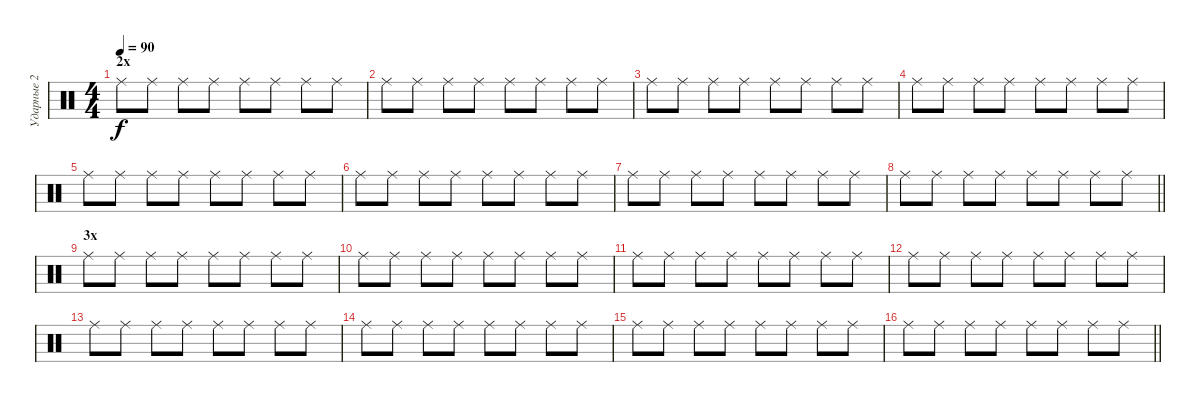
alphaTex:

\track ("Ударные 2" "Ударные 2") {instrument percussion}
\staff {score}
\articulation defaults
\ts (4 4)
\section ("" "2х")
\tempo 90
\clef neutral
\ks c "Ride (middle)".8{dy f} "Ride (middle)".8 "Ride (middle)".8 "Ride (middle)".8 "Ride (middle)".8 "Ride (middle)".8 "Ride (middle)".8 "Ride (middle)".8
|
"Ride (middle)".8 "Ride (middle)".8 "Ride (middle)".8 "Ride (middle)".8 "Ride (middle)".8 "Ride (middle)".8 "Ride (middle)".8 "Ride (middle)".8 |
"Ride (middle)".8 "Ride (middle)".8 "Ride (middle)".8 "Ride (middle)".8 "Ride (middle)".8 "Ride (middle)".8 "Ride (middle)".8 "Ride (middle)".8 |
"Ride (middle)".8 "Ride (middle)".8 "Ride (middle)".8 "Ride (middle)".8 "Ride (middle)".8 "Ride (middle)".8 "Ride (middle)".8 "Ride (middle)".8 |
"Ride (middle)".8 "Ride (middle)".8 "Ride (middle)".8 "Ride (middle)".8 "Ride (middle)".8 "Ride (middle)".8 "Ride (middle)".8 "Ride (middle)".8 |
"Ride (middle)".8 "Ride (middle)".8 "Ride (middle)".8 "Ride (middle)".8 "Ride (middle)".8 "Ride (middle)".8 "Ride (middle)".8 "Ride (middle)".8 |
"Ride (middle)".8 "Ride (middle)".8 "Ride (middle)".8 "Ride (middle)".8 "Ride (middle)".8 "Ride (middle)".8 "Ride (middle)".8 "Ride (middle)".8 |
\barLineRight lightlight "Ride (middle)".8 "Ride (middle)".8 "Ride (middle)".8 "Ride (middle)".8 "Ride (middle)".8 "Ride (middle)".8 "Ride (middle)".8 "Ride (middle)".8
|
\section ("" "3х")
"Ride (middle)".8 "Ride (middle)".8 "Ride (middle)".8 "Ride (middle)".8 "Ride (middle)".8 "Ride (middle)".8 "Ride (middle)".8 "Ride (middle)".8 |
"Ride (middle)".8 "Ride (middle)".8 "Ride (middle)".8 "Ride (middle)".8 "Ride (middle)".8 "Ride (middle)".8 "Ride (middle)".8 "Ride (middle)".8 |
"Ride (middle)".8 "Ride (middle)".8 "Ride (middle)".8 "Ride (middle)".8 "Ride (middle)".8 "Ride (middle)".8 "Ride (middle)".8 "Ride (middle)".8 |
"Ride (middle)".8 "Ride (middle)".8 "Ride (middle)".8 "Ride (middle)".8 "Ride (middle)".8 "Ride (middle)".8 "Ride (middle)".8 "Ride (middle)".8 |
"Ride (middle)".8 "Ride (middle)".8 "Ride (middle)".8 "Ride (middle)".8 "Ride (middle)".8 "Ride (middle)".8 "Ride (middle)".8 "Ride (middle)".8 |
"Ride (middle)".8 "Ride (middle)".8 "Ride (middle)".8 "Ride (middle)".8 "Ride (middle)".8 "Ride (middle)".8 "Ride (middle)".8 "Ride (middle)".8 |
"Ride (middle)".8 "Ride (middle)".8 "Ride (middle)".8 "Ride (middle)".8 "Ride (middle)".8 "Ride (middle)".8 "Ride (middle)".8 "Ride (middle)".8 |
\barLineRight lightlight "Ride (middle)".8 "Ride (middle)".8 "Ride (middle)".8 "Ride (middle)".8 "Ride (middle)".8 "Ride (middle)".8 "Ride (middle)".8 "Ride (middle)".8
